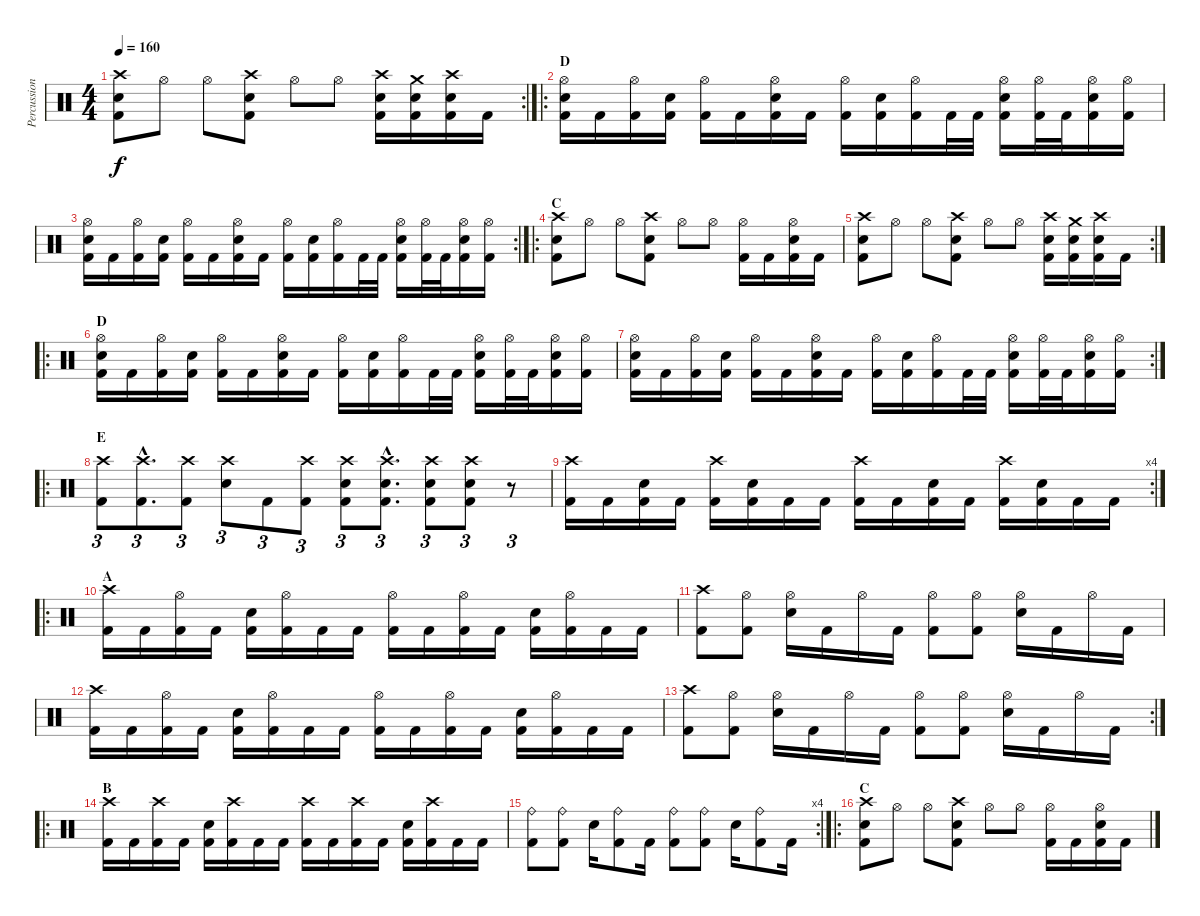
\track ("Percussions" "Percussion") {instrument percussion}
\staff {score}
\articulation defaults
\rc 2
\ts (4 4)
\tempo 160
\clef neutral
\ks c
("Crash high (hit)" "Electric Snare (hit)" "Kick (hit) 2").8{dy f} "Hi-Hat (open)".8 "Hi-Hat (open)".8 ("Crash high (hit)" "Electric Snare (hit)" "Kick (hit) 2").8 "Hi-Hat (open)".8 "Hi-Hat (open)".8 ("Crash high (hit)" "Electric Snare (hit)" "Kick (hit) 2").16 ("Crash medium (hit)" "Electric Snare (hit)" "Kick (hit) 2").16 ("Crash high (hit)" "Electric Snare (hit)" "Kick (hit) 2").16 "Kick (hit) 2".16 |
\ro
\section ("" "D")
("Hi-Hat (open)" "Electric Snare (hit)" "Kick (hit) 2").16 "Kick (hit) 2".16 ("Hi-Hat (open)" "Kick (hit) 2").16 ("Electric Snare (hit)" "Kick (hit) 2").16 ("Hi-Hat (open)" "Kick (hit) 2").16 "Kick (hit) 2".16 ("Hi-Hat (open)" "Electric Snare (hit)" "Kick (hit) 2").16 "Kick (hit) 2".16 ("Hi-Hat (open)" "Kick (hit) 2").16 ("Electric Snare (hit)" "Kick (hit) 2").16 ("Hi-Hat (open)" "Kick (hit) 2").16 "Kick (hit) 2".32 "Kick (hit) 2".32 ("Hi-Hat (open)" "Electric Snare (hit)" "Kick (hit) 2").16 ("Hi-Hat (open)" "Kick (hit) 2").32 "Kick (hit) 2".32 ("Hi-Hat (open)" "Electric Snare (hit)" "Kick (hit) 2").16 ("Hi-Hat (open)" "Kick (hit) 2").16 |
\rc 2
("Hi-Hat (open)" "Electric Snare (hit)" "Kick (hit) 2").16 "Kick (hit) 2".16 ("Hi-Hat (open)" "Kick (hit) 2").16 ("Electric Snare (hit)" "Kick (hit) 2").16 ("Hi-Hat (open)" "Kick (hit) 2").16 "Kick (hit) 2".16 ("Hi-Hat (open)" "Electric Snare (hit)" "Kick (hit) 2").16 "Kick (hit) 2".16 ("Hi-Hat (open)" "Kick (hit) 2").16 ("Electric Snare (hit)" "Kick (hit) 2").16 ("Hi-Hat (open)" "Kick (hit) 2").16 "Kick (hit) 2".32 "Kick (hit) 2".32 ("Hi-Hat (open)" "Electric Snare (hit)" "Kick (hit) 2").16 ("Hi-Hat (open)" "Kick (hit) 2").32 "Kick (hit) 2".32 ("Hi-Hat (open)" "Electric Snare (hit)" "Kick (hit) 2").16 ("Hi-Hat (open)" "Kick (hit) 2").16 |
\ro
\section ("" "C")
("Crash high (hit)" "Electric Snare (hit)" "Kick (hit) 2").8 "Hi-Hat (open)".8 "Hi-Hat (open)".8 ("Crash high (hit)" "Electric Snare (hit)" "Kick (hit) 2").8 "Hi-Hat (open)".8 "Hi-Hat (open)".8 ("Hi-Hat (open)" "Kick (hit) 2").16 "Kick (hit) 2".16 ("Hi-Hat (open)" "Electric Snare (hit)" "Kick (hit) 2").16 "Kick (hit) 2".16 |
\rc 2
("Crash high (hit)" "Electric Snare (hit)" "Kick (hit) 2").8 "Hi-Hat (open)".8 "Hi-Hat (open)".8 ("Crash high (hit)" "Electric Snare (hit)" "Kick (hit) 2").8 "Hi-Hat (open)".8 "Hi-Hat (open)".8 ("Crash high (hit)" "Electric Snare (hit)" "Kick (hit) 2").16 ("Crash medium (hit)" "Electric Snare (hit)" "Kick (hit) 2").16 ("Crash high (hit)" "Electric Snare (hit)" "Kick (hit) 2").16 "Kick (hit) 2".16 |
\ro
\section ("" "D")
("Hi-Hat (open)" "Electric Snare (hit)" "Kick (hit) 2").16 "Kick (hit) 2".16 ("Hi-Hat (open)" "Kick (hit) 2").16 ("Electric Snare (hit)" "Kick (hit) 2").16 ("Hi-Hat (open)" "Kick (hit) 2").16 "Kick (hit) 2".16 ("Hi-Hat (open)" "Electric Snare (hit)" "Kick (hit) 2").16 "Kick (hit) 2".16 ("Hi-Hat (open)" "Kick (hit) 2").16 ("Electric Snare (hit)" "Kick (hit) 2").16 ("Hi-Hat (open)" "Kick (hit) 2").16 "Kick (hit) 2".32 "Kick (hit) 2".32 ("Hi-Hat (open)" "Electric Snare (hit)" "Kick (hit) 2").16 ("Hi-Hat (open)" "Kick (hit) 2").32 "Kick (hit) 2".32 ("Hi-Hat (open)" "Electric Snare (hit)" "Kick (hit) 2").16 ("Hi-Hat (open)" "Kick (hit) 2").16 |
\rc 2
("Hi-Hat (open)" "Electric Snare (hit)" "Kick (hit) 2").16 "Kick (hit) 2".16 ("Hi-Hat (open)" "Kick (hit) 2").16 ("Electric Snare (hit)" "Kick (hit) 2").16 ("Hi-Hat (open)" "Kick (hit) 2").16 "Kick (hit) 2".16 ("Hi-Hat (open)" "Electric Snare (hit)" "Kick (hit) 2").16 "Kick (hit) 2".16 ("Hi-Hat (open)" "Kick (hit) 2").16 ("Electric Snare (hit)" "Kick (hit) 2").16 ("Hi-Hat (open)" "Kick (hit) 2").16 "Kick (hit) 2".32 "Kick (hit) 2".32 ("Hi-Hat (open)" "Electric Snare (hit)" "Kick (hit) 2").16 ("Hi-Hat (open)" "Kick (hit) 2").32 "Kick (hit) 2".32 ("Hi-Hat (open)" "Electric Snare (hit)" "Kick (hit) 2").16 ("Hi-Hat (open)" "Kick (hit) 2").16 |
\ro
\section ("" "E")
("Crash high (hit)" "Kick (hit) 2").8{tu (3 2)} ("Crash high (hit)"{hac} "Kick (hit) 2"{hac}).8{d tu (3 2)} ("Crash high (hit)" "Kick (hit) 2").8{tu (3 2)} ("Crash high (hit)" "Electric Snare (hit)").8{tu (3 2)} "Kick (hit) 2".8{tu (3 2)} ("Crash high (hit)" "Kick (hit) 2").8{tu (3 2)} ("Crash high (hit)" "Electric Snare (hit)" "Kick (hit) 2").8{tu (3 2)} ("Crash high (hit)"{hac} "Electric Snare (hit)"{hac} "Kick (hit) 2"{hac}).8{d tu (3 2)} ("Crash high (hit)" "Electric Snare (hit)" "Kick (hit) 2").8{tu (3 2)} ("Crash high (hit)" "Electric Snare (hit)" "Kick (hit) 2").8{tu (3 2)} r.8{tu (3 2)} |
\rc 4
("Crash high (hit)" "Kick (hit) 2").16 "Kick (hit) 2".16 ("Electric Snare (hit)" "Kick (hit) 2").16 "Kick (hit) 2".16 ("Crash high (hit)" "Kick (hit) 2").16 ("Electric Snare (hit)" "Kick (hit) 2").16 "Kick (hit) 2".16 "Kick (hit) 2".16 ("Crash high (hit)" "Kick (hit) 2").16 "Kick (hit) 2".16 ("Electric Snare (hit)" "Kick (hit) 2").16 "Kick (hit) 2".16 ("Crash high (hit)" "Kick (hit) 2").16 ("Electric Snare (hit)" "Kick (hit) 2").16 "Kick (hit) 2".16 "Kick (hit) 2".16 |
\ro
\section ("" "A")
("Crash high (hit)" "Kick (hit) 2").16 "Kick (hit) 2".16 ("Hi-Hat (open)" "Kick (hit) 2").16 "Kick (hit) 2".16 ("Electric Snare (hit)" "Kick (hit) 2").16 ("Hi-Hat (open)" "Kick (hit) 2").16 "Kick (hit) 2".16 "Kick (hit) 2".16 ("Hi-Hat (open)" "Kick (hit) 2").16 "Kick (hit) 2".16 ("Hi-Hat (open)" "Kick (hit) 2").16 "Kick (hit) 2".16 ("Electric Snare (hit)" "Kick (hit) 2").16 ("Hi-Hat (open)" "Kick (hit) 2").16 "Kick (hit) 2".16 "Kick (hit) 2".16 |
("Crash high (hit)" "Kick (hit) 2").8 ("Hi-Hat (open)" "Kick (hit) 2").8 ("Hi-Hat (open)" "Electric Snare (hit)").16 "Kick (hit) 2".16 "Hi-Hat (open)".16 "Kick (hit) 2".16 ("Hi-Hat (open)" "Kick (hit) 2").8 ("Hi-Hat (open)" "Kick (hit) 2").8 ("Hi-Hat (open)" "Electric Snare (hit)").16 "Kick (hit) 2".16 "Hi-Hat (open)".16 "Kick (hit) 2".16 |
("Crash high (hit)" "Kick (hit) 2").16 "Kick (hit) 2".16 ("Hi-Hat (open)" "Kick (hit) 2").16 "Kick (hit) 2".16 ("Electric Snare (hit)" "Kick (hit) 2").16 ("Hi-Hat (open)" "Kick (hit) 2").16 "Kick (hit) 2".16 "Kick (hit) 2".16 ("Hi-Hat (open)" "Kick (hit) 2").16 "Kick (hit) 2".16 ("Hi-Hat (open)" "Kick (hit) 2").16 "Kick (hit) 2".16 ("Electric Snare (hit)" "Kick (hit) 2").16 ("Hi-Hat (open)" "Kick (hit) 2").16 "Kick (hit) 2".16 "Kick (hit) 2".16 |
\rc 2
("Crash high (hit)" "Kick (hit) 2").8 ("Hi-Hat (open)" "Kick (hit) 2").8 ("Hi-Hat (open)" "Electric Snare (hit)").16 "Kick (hit) 2".16 "Hi-Hat (open)".16 "Kick (hit) 2".16 ("Hi-Hat (open)" "Kick (hit) 2").8 ("Hi-Hat (open)" "Kick (hit) 2").8 ("Hi-Hat (open)" "Electric Snare (hit)").16 "Kick (hit) 2".16 "Hi-Hat (open)".16 "Kick (hit) 2".16 |
\ro
\section ("" "B")
("Crash high (hit)" "Kick (hit) 2").16 "Kick (hit) 2".16 ("Crash high (hit)" "Kick (hit) 2").16 "Kick (hit) 2".16 ("Electric Snare (hit)" "Kick (hit) 2").16 ("Crash high (hit)" "Kick (hit) 2").16 "Kick (hit) 2".16 "Kick (hit) 2".16 ("Crash high (hit)" "Kick (hit) 2").16 "Kick (hit) 2".16 ("Crash high (hit)" "Kick (hit) 2").16 "Kick (hit) 2".16 ("Electric Snare (hit)" "Kick (hit) 2").16 ("Crash high (hit)" "Kick (hit) 2").16 "Kick (hit) 2".16 "Kick (hit) 2".16 |
\rc 4
("Ride (bell)" "Kick (hit) 2").8 ("Ride (bell)" "Kick (hit) 2").8 "Electric Snare (hit)".16 ("Ride (bell)" "Kick (hit) 2").8 "Kick (hit) 2".16 ("Ride (bell)" "Kick (hit) 2").8 ("Ride (bell)" "Kick (hit) 2").8 "Electric Snare (hit)".16 ("Ride (bell)" "Kick (hit) 2").8 "Kick (hit) 2".16 |
\ro
\section ("" "C")
("Crash high (hit)" "Electric Snare (hit)" "Kick (hit) 2").8 "Hi-Hat (open)".8 "Hi-Hat (open)".8 ("Crash high (hit)" "Electric Snare (hit)" "Kick (hit) 2").8 "Hi-Hat (open)".8 "Hi-Hat (open)".8 ("Hi-Hat (open)" "Kick (hit) 2").16 "Kick (hit) 2".16 ("Hi-Hat (open)" "Electric Snare (hit)" "Kick (hit) 2").16 "Kick (hit) 2".16
